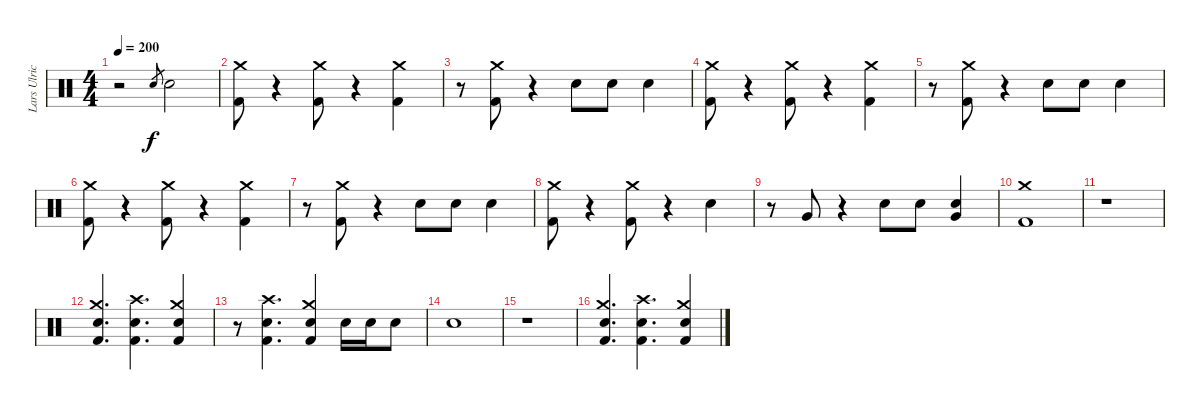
\track ("Lars Ulrich" "Lars Ulric") {instrument percussion}
\staff {score}
\articulation defaults
\ts (4 4)
\tempo 200
\clef neutral
\ks c
r.2{dy f} "Electric Snare (hit)".8{gr} "Electric Snare (hit)".2 |
("Crash medium (hit)" "Kick (hit) 2").8 r.4 ("Crash medium (hit)" "Kick (hit) 2").8 r.4 ("Crash medium (hit)" "Kick (hit) 2").4 |
r.8 ("Crash medium (hit)" "Kick (hit) 2").8 r.4 "Electric Snare (hit)".8 "Electric Snare (hit)".8 "Electric Snare (hit)".4 |
("Crash medium (hit)" "Kick (hit) 2").8 r.4 ("Crash medium (hit)" "Kick (hit) 2").8 r.4 ("Crash medium (hit)" "Kick (hit) 2").4 |
r.8 ("Crash medium (hit)" "Kick (hit) 2").8 r.4 "Electric Snare (hit)".8 "Electric Snare (hit)".8 "Electric Snare (hit)".4 |
("Crash medium (hit)" "Kick (hit) 2").8 r.4 ("Crash medium (hit)" "Kick (hit) 2").8 r.4 ("Crash medium (hit)" "Kick (hit) 2").4 |
r.8 ("Crash medium (hit)" "Kick (hit) 2").8 r.4 "Electric Snare (hit)".8 "Electric Snare (hit)".8 "Electric Snare (hit)".4 |
("Crash medium (hit)" "Kick (hit) 2").8 r.4 ("Crash medium (hit)" "Kick (hit) 2").8 r.4 "Electric Snare (hit)".4 |
r.8 "Very Low Tom (hit)".8 r.4 "Electric Snare (hit)".8 "Electric Snare (hit)".8 ("Electric Snare (hit)" "Very Low Tom (hit)").4 |
("Crash medium (hit)" "Kick (hit) 2").1 |
r.1 |
("Crash medium (hit)" "Electric Snare (hit)" "Kick (hit) 2").4{d} ("Crash high (hit)" "Electric Snare (hit)" "Kick (hit) 2").4{d} ("Crash medium (hit)" "Electric Snare (hit)" "Kick (hit) 2").4 |
r.8 ("Crash high (hit)" "Electric Snare (hit)" "Kick (hit) 2").4{d} ("Crash medium (hit)" "Electric Snare (hit)" "Kick (hit) 2").4 "Electric Snare (hit)".16 "Electric Snare (hit)".16 "Electric Snare (hit)".8 |
"Electric Snare (hit)".1 |
r.1 |
("Crash medium (hit)" "Electric Snare (hit)" "Kick (hit) 2").4{d} ("Crash high (hit)" "Electric Snare (hit)" "Kick (hit) 2").4{d} ("Crash medium (hit)" "Electric Snare (hit)" "Kick (hit) 2").4
